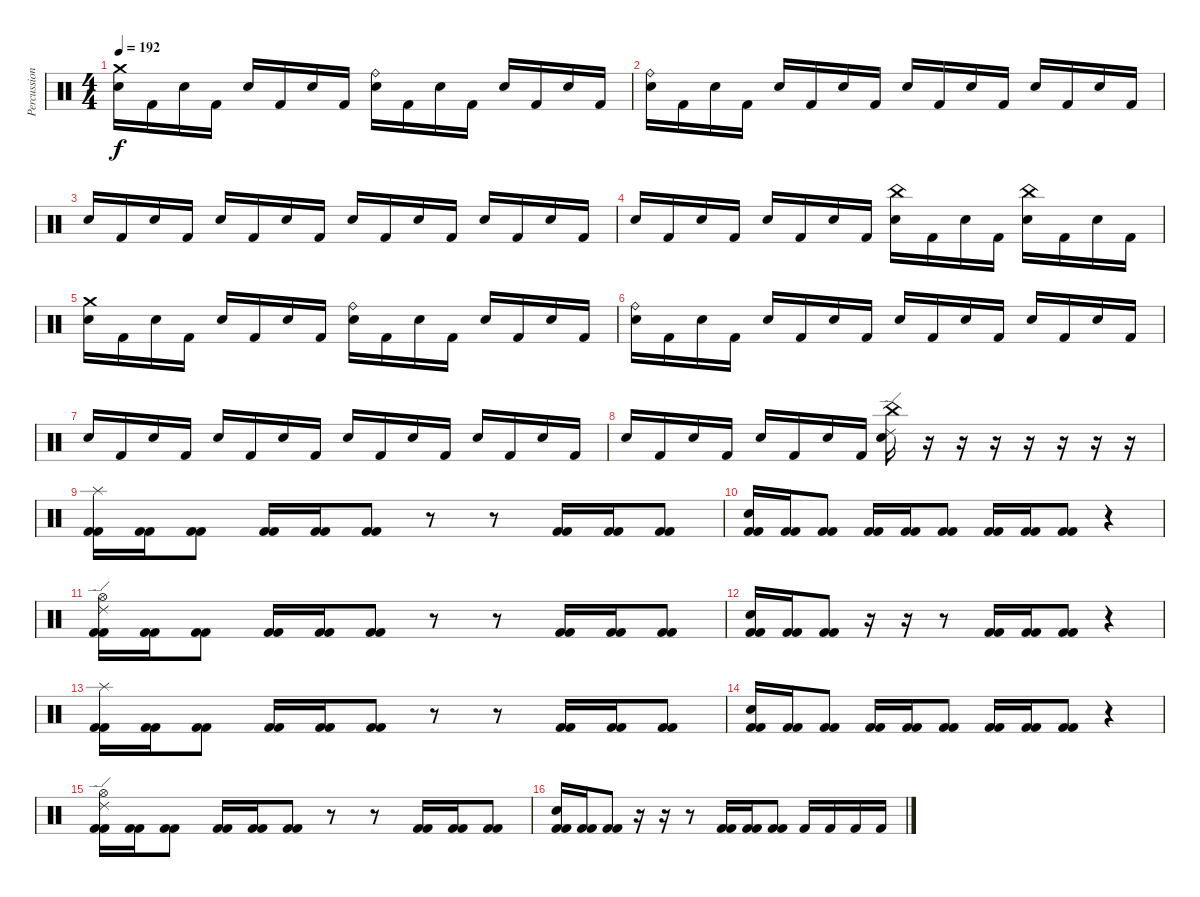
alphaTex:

\track ("Percussion" "Percussion") {instrument percussion}
\staff {score}
\articulation defaults
\ts (4 4)
\tempo 192
\clef neutral
\ks c
("Crash medium (hit)" "Electric Snare (hit)").16{dy f} "Kick (hit) 2".16 "Electric Snare (hit)".16 "Kick (hit) 2".16 "Electric Snare (hit)".16 "Kick (hit) 2".16 "Electric Snare (hit)".16 "Kick (hit) 2".16 ("Ride (bell)" "Electric Snare (hit)").16 "Kick (hit) 2".16 "Electric Snare (hit)".16 "Kick (hit) 2".16 "Electric Snare (hit)".16 "Kick (hit) 2".16 "Electric Snare (hit)".16 "Kick (hit) 2".16 |
("Ride (bell)" "Electric Snare (hit)").16 "Kick (hit) 2".16 "Electric Snare (hit)".16 "Kick (hit) 2".16 "Electric Snare (hit)".16 "Kick (hit) 2".16 "Electric Snare (hit)".16 "Kick (hit) 2".16 "Electric Snare (hit)".16 "Kick (hit) 2".16 "Electric Snare (hit)".16 "Kick (hit) 2".16 "Electric Snare (hit)".16 "Kick (hit) 2".16 "Electric Snare (hit)".16 "Kick (hit) 2".16 |
"Electric Snare (hit)".16 "Kick (hit) 2".16 "Electric Snare (hit)".16 "Kick (hit) 2".16 "Electric Snare (hit)".16 "Kick (hit) 2".16 "Electric Snare (hit)".16 "Kick (hit) 2".16 "Electric Snare (hit)".16 "Kick (hit) 2".16 "Electric Snare (hit)".16 "Kick (hit) 2".16 "Electric Snare (hit)".16 "Kick (hit) 2".16 "Electric Snare (hit)".16 "Kick (hit) 2".16 |
"Electric Snare (hit)".16 "Kick (hit) 2".16 "Electric Snare (hit)".16 "Kick (hit) 2".16 "Electric Snare (hit)".16 "Kick (hit) 2".16 "Electric Snare (hit)".16 "Kick (hit) 2".16 ("China (hit)" "Electric Snare (hit)").16 "Kick (hit) 2".16 "Electric Snare (hit)".16 "Kick (hit) 2".16 ("China (hit)" "Electric Snare (hit)").16 "Kick (hit) 2".16 "Electric Snare (hit)".16 "Kick (hit) 2".16 |
("Crash medium (hit)" "Electric Snare (hit)").16 "Kick (hit) 2".16 "Electric Snare (hit)".16 "Kick (hit) 2".16 "Electric Snare (hit)".16 "Kick (hit) 2".16 "Electric Snare (hit)".16 "Kick (hit) 2".16 ("Ride (bell)" "Electric Snare (hit)").16 "Kick (hit) 2".16 "Electric Snare (hit)".16 "Kick (hit) 2".16 "Electric Snare (hit)".16 "Kick (hit) 2".16 "Electric Snare (hit)".16 "Kick (hit) 2".16 |
("Ride (bell)" "Electric Snare (hit)").16 "Kick (hit) 2".16 "Electric Snare (hit)".16 "Kick (hit) 2".16 "Electric Snare (hit)".16 "Kick (hit) 2".16 "Electric Snare (hit)".16 "Kick (hit) 2".16 "Electric Snare (hit)".16 "Kick (hit) 2".16 "Electric Snare (hit)".16 "Kick (hit) 2".16 "Electric Snare (hit)".16 "Kick (hit) 2".16 "Electric Snare (hit)".16 "Kick (hit) 2".16 |
"Electric Snare (hit)".16 "Kick (hit) 2".16 "Electric Snare (hit)".16 "Kick (hit) 2".16 "Electric Snare (hit)".16 "Kick (hit) 2".16 "Electric Snare (hit)".16 "Kick (hit) 2".16 "Electric Snare (hit)".16 "Kick (hit) 2".16 "Electric Snare (hit)".16 "Kick (hit) 2".16 "Electric Snare (hit)".16 "Kick (hit) 2".16 "Electric Snare (hit)".16 "Kick (hit) 2".16 |
"Electric Snare (hit)".16 "Kick (hit) 2".16 "Electric Snare (hit)".16 "Kick (hit) 2".16 "Electric Snare (hit)".16 "Kick (hit) 2".16 "Electric Snare (hit)".16 "Kick (hit) 2".16 ("China (hit)" "Ride (edge) 2" "Electric Snare (hit)").16 r.16 r.16 r.16 r.16 r.16 r.16 r.16 |
("Splash (hit)" "Kick (hit) 2" "Kick (hit) 2").16 ("Kick (hit) 2" "Kick (hit) 2").16 ("Kick (hit) 2" "Kick (hit) 2").8 ("Kick (hit) 2" "Kick (hit) 2").16 ("Kick (hit) 2" "Kick (hit) 2").16 ("Kick (hit) 2" "Kick (hit) 2").8 r.8 r.8 ("Kick (hit) 2" "Kick (hit) 2").16 ("Kick (hit) 2" "Kick (hit) 2").16 ("Kick (hit) 2" "Kick (hit) 2").8 |
("Electric Snare (hit)" "Kick (hit) 2" "Kick (hit) 2").16 ("Kick (hit) 2" "Kick (hit) 2").16 ("Kick (hit) 2" "Kick (hit) 2").8 ("Kick (hit) 2" "Kick (hit) 2").16 ("Kick (hit) 2" "Kick (hit) 2").16 ("Kick (hit) 2" "Kick (hit) 2").8 ("Kick (hit) 2" "Kick (hit) 2").16 ("Kick (hit) 2" "Kick (hit) 2").16 ("Kick (hit) 2" "Kick (hit) 2").8 r.4 |
("Ride (edge) 2" "Hi-Hat (open)" "Kick (hit) 2" "Kick (hit) 2").16 ("Kick (hit) 2" "Kick (hit) 2").16 ("Kick (hit) 2" "Kick (hit) 2").8 ("Kick (hit) 2" "Kick (hit) 2").16 ("Kick (hit) 2" "Kick (hit) 2").16 ("Kick (hit) 2" "Kick (hit) 2").8 r.8 r.8 ("Kick (hit) 2" "Kick (hit) 2").16 ("Kick (hit) 2" "Kick (hit) 2").16 ("Kick (hit) 2" "Kick (hit) 2").8 |
("Electric Snare (hit)" "Kick (hit) 2" "Kick (hit) 2").16 ("Kick (hit) 2" "Kick (hit) 2").16 ("Kick (hit) 2" "Kick (hit) 2").8 r.16 r.16 r.8 ("Kick (hit) 2" "Kick (hit) 2").16 ("Kick (hit) 2" "Kick (hit) 2").16 ("Kick (hit) 2" "Kick (hit) 2").8 r.4 |
("Splash (hit)" "Kick (hit) 2" "Kick (hit) 2").16 ("Kick (hit) 2" "Kick (hit) 2").16 ("Kick (hit) 2" "Kick (hit) 2").8 ("Kick (hit) 2" "Kick (hit) 2").16 ("Kick (hit) 2" "Kick (hit) 2").16 ("Kick (hit) 2" "Kick (hit) 2").8 r.8 r.8 ("Kick (hit) 2" "Kick (hit) 2").16 ("Kick (hit) 2" "Kick (hit) 2").16 ("Kick (hit) 2" "Kick (hit) 2").8 |
("Electric Snare (hit)" "Kick (hit) 2" "Kick (hit) 2").16 ("Kick (hit) 2" "Kick (hit) 2").16 ("Kick (hit) 2" "Kick (hit) 2").8 ("Kick (hit) 2" "Kick (hit) 2").16 ("Kick (hit) 2" "Kick (hit) 2").16 ("Kick (hit) 2" "Kick (hit) 2").8 ("Kick (hit) 2" "Kick (hit) 2").16 ("Kick (hit) 2" "Kick (hit) 2").16 ("Kick (hit) 2" "Kick (hit) 2").8 r.4 |
("Ride (edge) 2" "Hi-Hat (open)" "Kick (hit) 2" "Kick (hit) 2").16 ("Kick (hit) 2" "Kick (hit) 2").16 ("Kick (hit) 2" "Kick (hit) 2").8 ("Kick (hit) 2" "Kick (hit) 2").16 ("Kick (hit) 2" "Kick (hit) 2").16 ("Kick (hit) 2" "Kick (hit) 2").8 r.8 r.8 ("Kick (hit) 2" "Kick (hit) 2").16 ("Kick (hit) 2" "Kick (hit) 2").16 ("Kick (hit) 2" "Kick (hit) 2").8 |
("Electric Snare (hit)" "Kick (hit) 2" "Kick (hit) 2").16 ("Kick (hit) 2" "Kick (hit) 2").16 ("Kick (hit) 2" "Kick (hit) 2").8 r.16 r.16 r.8 ("Kick (hit) 2" "Kick (hit) 2").16 ("Kick (hit) 2" "Kick (hit) 2").16 ("Kick (hit) 2" "Kick (hit) 2").8 "Kick (hit) 2".16 "Kick (hit) 2".16 "Kick (hit) 2".16 "Kick (hit) 2".16
